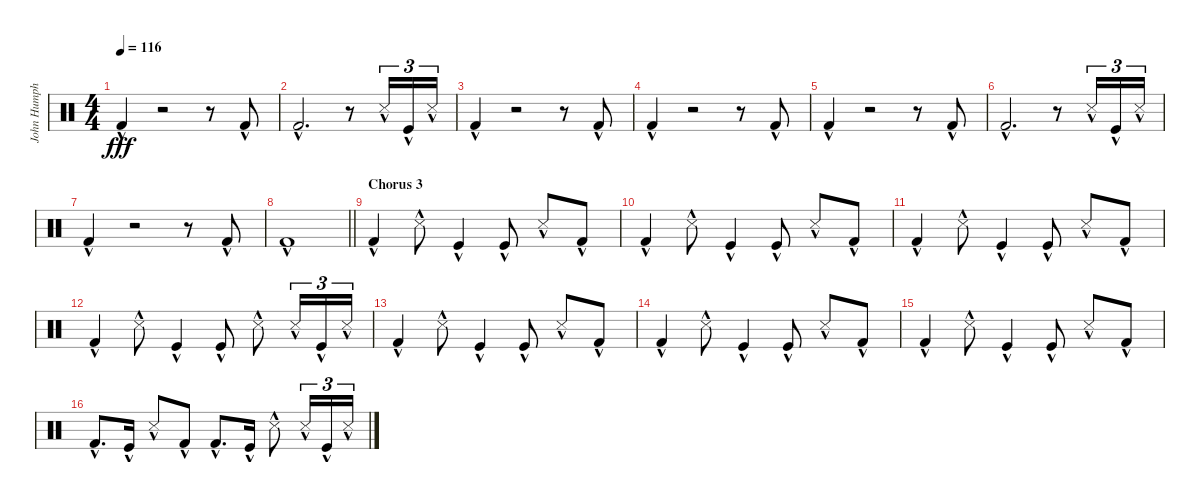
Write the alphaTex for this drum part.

\track ("John Humphrey (Percussions)" "John Humph") {instrument percussion}
\staff {score}
\articulation defaults
\ts (4 4)
\tempo 116
\clef neutral
\ks c "Kick (hit) 2"{hac}.4{dy fff}
r.2 r.8 "Kick (hit) 2"{hac}.8 |
"Kick (hit) 2"{hac}.2{d} r.8 "Snare (side stick) 3"{hac}.16{tu (3 2)} "Kick (hit)"{hac}.16{tu (3 2)} "Snare (side stick) 3"{hac}.16{tu (3 2)} |
"Kick (hit) 2"{hac}.4 r.2 r.8 "Kick (hit) 2"{hac}.8 |
"Kick (hit) 2"{hac}.4 r.2 r.8 "Kick (hit) 2"{hac}.8 |
"Kick (hit) 2"{hac}.4 r.2 r.8 "Kick (hit) 2"{hac}.8 |
"Kick (hit) 2"{hac}.2{d} r.8 "Snare (side stick) 3"{hac}.16{tu (3 2)} "Kick (hit)"{hac}.16{tu (3 2)} "Snare (side stick) 3"{hac}.16{tu (3 2)} |
"Kick (hit) 2"{hac}.4 r.2 r.8 "Kick (hit) 2"{hac}.8 |
\barLineRight lightlight "Kick (hit) 2"{hac}.1
|
\section ("" "Chorus 3")
"Kick (hit) 2"{hac}.4 "Snare (side stick) 3"{hac}.8 "Kick (hit)"{hac}.4 "Kick (hit)"{hac}.8 "Snare (side stick) 3"{hac}.8 "Kick (hit) 2"{hac}.8 |
"Kick (hit) 2"{hac}.4 "Snare (side stick) 3"{hac}.8 "Kick (hit)"{hac}.4 "Kick (hit)"{hac}.8 "Snare (side stick) 3"{hac}.8 "Kick (hit) 2"{hac}.8 |
"Kick (hit) 2"{hac}.4 "Snare (side stick) 3"{hac}.8 "Kick (hit)"{hac}.4 "Kick (hit)"{hac}.8 "Snare (side stick) 3"{hac}.8 "Kick (hit) 2"{hac}.8 |
"Kick (hit) 2"{hac}.4 "Snare (side stick) 3"{hac}.8 "Kick (hit)"{hac}.4 "Kick (hit)"{hac}.8 "Snare (side stick) 3"{hac}.8 "Snare (side stick) 3"{hac}.16{tu (3 2)} "Kick (hit)"{hac}.16{tu (3 2)} "Snare (side stick) 3"{hac}.16{tu (3 2)} |
"Kick (hit) 2"{hac}.4 "Snare (side stick) 3"{hac}.8 "Kick (hit)"{hac}.4 "Kick (hit)"{hac}.8 "Snare (side stick) 3"{hac}.8 "Kick (hit) 2"{hac}.8 |
"Kick (hit) 2"{hac}.4 "Snare (side stick) 3"{hac}.8 "Kick (hit)"{hac}.4 "Kick (hit)"{hac}.8 "Snare (side stick) 3"{hac}.8 "Kick (hit) 2"{hac}.8 |
"Kick (hit) 2"{hac}.4 "Snare (side stick) 3"{hac}.8 "Kick (hit)"{hac}.4 "Kick (hit)"{hac}.8 "Snare (side stick) 3"{hac}.8 "Kick (hit) 2"{hac}.8 |
"Kick (hit) 2"{hac}.8{d} "Kick (hit)"{hac}.16 "Snare (side stick) 3"{hac}.8 "Kick (hit) 2"{hac}.8 "Kick (hit) 2"{hac}.8{d} "Kick (hit)"{hac}.16 "Snare (side stick) 3"{hac}.8 "Snare (side stick) 3"{hac}.16{tu (3 2)} "Kick (hit)"{hac}.16{tu (3 2)} "Snare (side stick) 3"{hac}.16{tu (3 2)}
